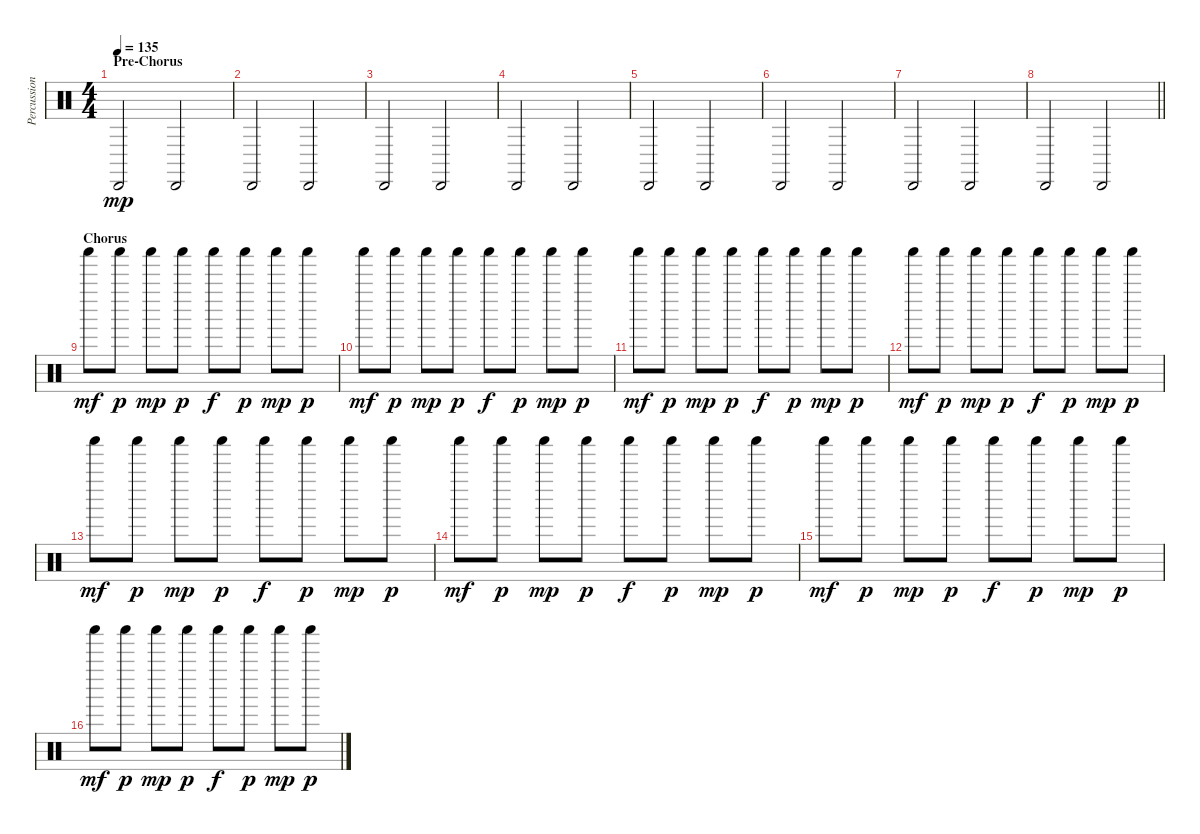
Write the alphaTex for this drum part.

\track ("Percussion" "Percussion") {instrument percussion}
\staff {score}
\articulation defaults
\ts (4 4)
\section ("" "Pre-Chorus")
\tempo 135
\clef neutral
\ks c "Cabasa (hit)".2{dy mp} "Cabasa (hit)".2
|
"Cabasa (hit)".2 "Cabasa (hit)".2 |
"Cabasa (hit)".2 "Cabasa (hit)".2 |
"Cabasa (hit)".2 "Cabasa (hit)".2 |
"Cabasa (hit)".2 "Cabasa (hit)".2 |
"Cabasa (hit)".2 "Cabasa (hit)".2 |
"Cabasa (hit)".2 "Cabasa (hit)".2 |
\barLineRight lightlight "Cabasa (hit)".2 "Cabasa (hit)".2
|
\section ("" "Chorus")
"Shaker (hit)".8{dy mf} "Shaker (hit)".8{dy p} "Shaker (hit)".8{dy mp} "Shaker (hit)".8{dy p} "Shaker (hit)".8{dy f} "Shaker (hit)".8{dy p} "Shaker (hit)".8{dy mp} "Shaker (hit)".8{dy p} |
"Shaker (hit)".8{dy mf} "Shaker (hit)".8{dy p} "Shaker (hit)".8{dy mp} "Shaker (hit)".8{dy p} "Shaker (hit)".8{dy f} "Shaker (hit)".8{dy p} "Shaker (hit)".8{dy mp} "Shaker (hit)".8{dy p} |
"Shaker (hit)".8{dy mf} "Shaker (hit)".8{dy p} "Shaker (hit)".8{dy mp} "Shaker (hit)".8{dy p} "Shaker (hit)".8{dy f} "Shaker (hit)".8{dy p} "Shaker (hit)".8{dy mp} "Shaker (hit)".8{dy p} |
"Shaker (hit)".8{dy mf} "Shaker (hit)".8{dy p} "Shaker (hit)".8{dy mp} "Shaker (hit)".8{dy p} "Shaker (hit)".8{dy f} "Shaker (hit)".8{dy p} "Shaker (hit)".8{dy mp} "Shaker (hit)".8{dy p} |
"Shaker (hit)".8{dy mf} "Shaker (hit)".8{dy p} "Shaker (hit)".8{dy mp} "Shaker (hit)".8{dy p} "Shaker (hit)".8{dy f} "Shaker (hit)".8{dy p} "Shaker (hit)".8{dy mp} "Shaker (hit)".8{dy p} |
"Shaker (hit)".8{dy mf} "Shaker (hit)".8{dy p} "Shaker (hit)".8{dy mp} "Shaker (hit)".8{dy p} "Shaker (hit)".8{dy f} "Shaker (hit)".8{dy p} "Shaker (hit)".8{dy mp} "Shaker (hit)".8{dy p} |
"Shaker (hit)".8{dy mf} "Shaker (hit)".8{dy p} "Shaker (hit)".8{dy mp} "Shaker (hit)".8{dy p} "Shaker (hit)".8{dy f} "Shaker (hit)".8{dy p} "Shaker (hit)".8{dy mp} "Shaker (hit)".8{dy p} |
"Shaker (hit)".8{dy mf} "Shaker (hit)".8{dy p} "Shaker (hit)".8{dy mp} "Shaker (hit)".8{dy p} "Shaker (hit)".8{dy f} "Shaker (hit)".8{dy p} "Shaker (hit)".8{dy mp} "Shaker (hit)".8{dy p}
